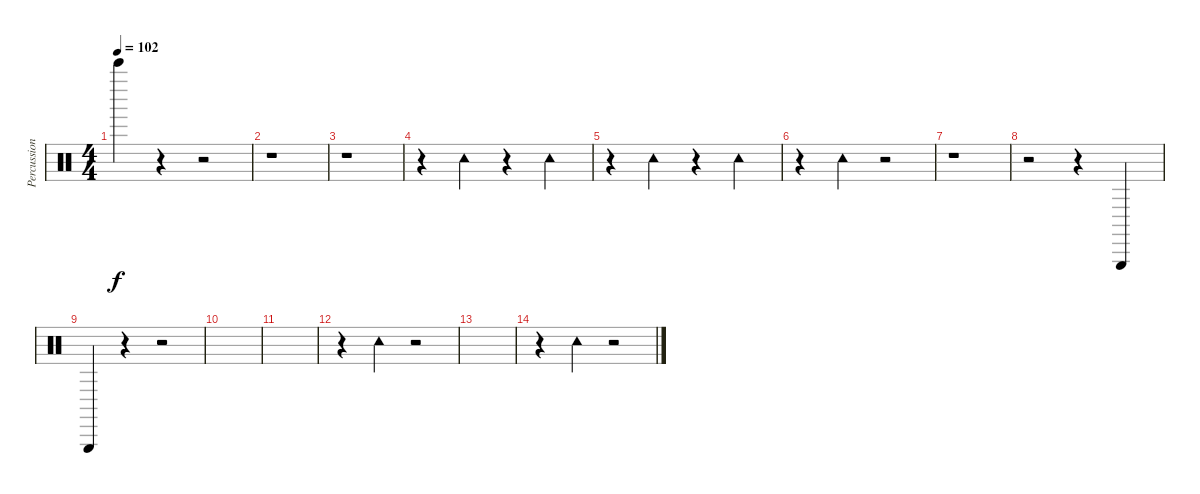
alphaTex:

\track ("Percussion" "Percussion") {instrument percussion}
\staff {score}
\articulation defaults
\ts (4 4)
\tempo 102
\clef neutral
\ks c "Bell Tree (hit)".4{dy f}
r.4 r.2 |
r.1 |
r.1 |
r.4 "Tambourine (hit)".4 r.4 "Tambourine (hit)".4 |
r.4 "Tambourine (hit)".4 r.4 "Tambourine (hit)".4 |
r.4 "Tambourine (hit)".4 r.2 |
r.1 |
r.2 r.4 "Triangle (hit)".4 |
"Triangle (hit)".4 r.4 r.2 |
|
|
r.4 "Tambourine (hit)".4 r.2 |
|
r.4 "Tambourine (hit)".4 r.2
